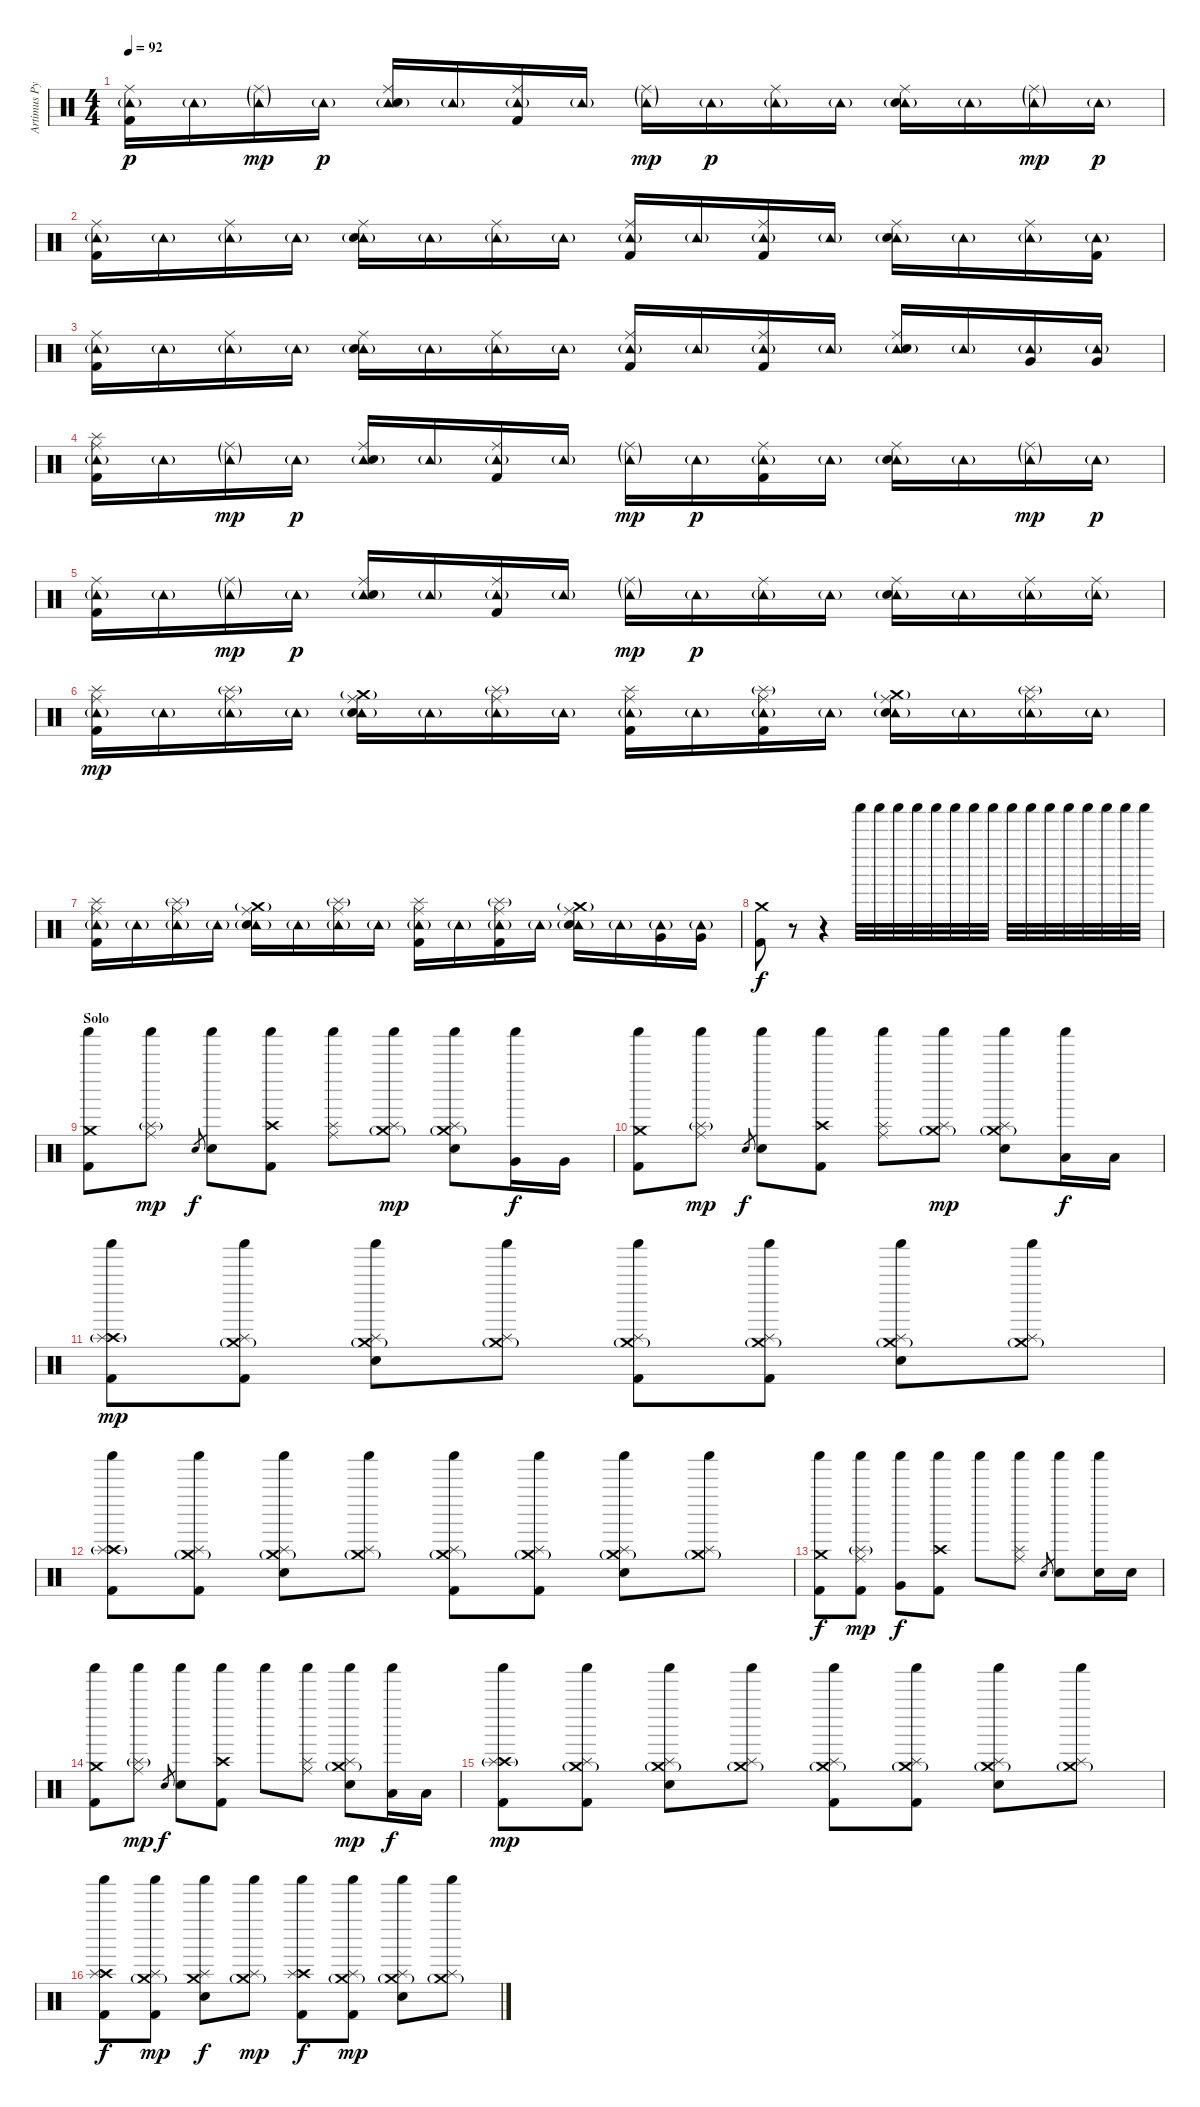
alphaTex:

\track ("Artimus Pyle (drums)" "Artimus Py") {instrument percussion}
\staff {score}
\articulation defaults
\ts (4 4)
\tempo 92
\clef neutral
\ks c
("Tambourine (hit)"{g} "Ride (middle)" "Kick (hit) 2").16{dy p} "Tambourine (hit)"{g}.16 ("Tambourine (hit)"{g} "Ride (middle)"{g}).16{dy mp} "Tambourine (hit)"{g}.16{dy p} ("Tambourine (hit)"{g} "Ride (middle)" "Electric Snare (hit)").16 "Tambourine (hit)"{g}.16 ("Tambourine (hit)"{g} "Ride (middle)" "Kick (hit) 2").16 "Tambourine (hit)"{g}.16 ("Tambourine (hit)"{g} "Ride (middle)"{g}).16{dy mp} "Tambourine (hit)"{g}.16{dy p} ("Tambourine (hit)"{g} "Ride (middle)").16 "Tambourine (hit)"{g}.16 ("Tambourine (hit)"{g} "Ride (middle)" "Electric Snare (hit)").16 "Tambourine (hit)"{g}.16 ("Tambourine (hit)"{g} "Ride (middle)"{g}).16{dy mp} "Tambourine (hit)"{g}.16{dy p} |
("Tambourine (hit)"{g} "Ride (middle)" "Kick (hit) 2").16 "Tambourine (hit)"{g}.16 ("Tambourine (hit)"{g} "Ride (middle)").16 "Tambourine (hit)"{g}.16 ("Tambourine (hit)"{g} "Ride (middle)" "Electric Snare (hit)").16 "Tambourine (hit)"{g}.16 ("Tambourine (hit)"{g} "Ride (middle)").16 "Tambourine (hit)"{g}.16 ("Tambourine (hit)"{g} "Ride (middle)" "Kick (hit) 2").16 "Tambourine (hit)"{g}.16 ("Tambourine (hit)"{g} "Ride (middle)" "Kick (hit) 2").16 "Tambourine (hit)"{g}.16 ("Tambourine (hit)"{g} "Ride (middle)" "Electric Snare (hit)").16 "Tambourine (hit)"{g}.16 ("Tambourine (hit)"{g} "Ride (middle)").16 ("Tambourine (hit)"{g} "Kick (hit) 2").16 |
("Tambourine (hit)"{g} "Ride (middle)" "Kick (hit) 2").16 "Tambourine (hit)"{g}.16 ("Tambourine (hit)"{g} "Ride (middle)").16 "Tambourine (hit)"{g}.16 ("Tambourine (hit)"{g} "Ride (middle)" "Electric Snare (hit)").16 "Tambourine (hit)"{g}.16 ("Tambourine (hit)"{g} "Ride (middle)").16 "Tambourine (hit)"{g}.16 ("Tambourine (hit)"{g} "Ride (middle)" "Kick (hit) 2").16 "Tambourine (hit)"{g}.16 ("Tambourine (hit)"{g} "Ride (middle)" "Kick (hit) 2").16 "Tambourine (hit)"{g}.16 ("Tambourine (hit)"{g} "Ride (middle)" "Electric Snare (hit)").16 "Tambourine (hit)"{g}.16 ("Tambourine (hit)"{g} "Very Low Tom (hit)").16 ("Tambourine (hit)"{g} "Very Low Tom (hit)").16 |
("Tambourine (hit)"{g} "Splash (hit)" "Ride (middle)" "Kick (hit) 2").16 "Tambourine (hit)"{g}.16 ("Tambourine (hit)"{g} "Ride (middle)"{g}).16{dy mp} "Tambourine (hit)"{g}.16{dy p} ("Tambourine (hit)"{g} "Ride (middle)" "Electric Snare (hit)").16 "Tambourine (hit)"{g}.16 ("Tambourine (hit)"{g} "Ride (middle)" "Kick (hit) 2").16 "Tambourine (hit)"{g}.16 ("Tambourine (hit)"{g} "Ride (middle)"{g}).16{dy mp} "Tambourine (hit)"{g}.16{dy p} ("Tambourine (hit)"{g} "Ride (middle)" "Kick (hit) 2").16 "Tambourine (hit)"{g}.16 ("Tambourine (hit)"{g} "Ride (middle)" "Electric Snare (hit)").16 "Tambourine (hit)"{g}.16 ("Tambourine (hit)"{g} "Ride (middle)"{g}).16{dy mp} "Tambourine (hit)"{g}.16{dy p} |
("Tambourine (hit)"{g} "Ride (middle)" "Kick (hit) 2").16 "Tambourine (hit)"{g}.16 ("Tambourine (hit)"{g} "Ride (middle)"{g}).16{dy mp} "Tambourine (hit)"{g}.16{dy p} ("Tambourine (hit)"{g} "Ride (middle)" "Electric Snare (hit)").16 "Tambourine (hit)"{g}.16 ("Tambourine (hit)"{g} "Ride (middle)" "Kick (hit) 2").16 "Tambourine (hit)"{g}.16 ("Tambourine (hit)"{g} "Ride (middle)"{g}).16{dy mp} "Tambourine (hit)"{g}.16{dy p} ("Tambourine (hit)"{g} "Ride (middle)").16 "Tambourine (hit)"{g}.16 ("Tambourine (hit)"{g} "Ride (middle)" "Electric Snare (hit)").16 "Tambourine (hit)"{g}.16 ("Tambourine (hit)"{g} "Ride (middle)").16 ("Tambourine (hit)"{g} "Ride (middle)").16 |
("Tambourine (hit)"{g} "Splash (hit)" "Ride (middle)" "Kick (hit) 2").16{dy mp} "Tambourine (hit)"{g}.16 ("Tambourine (hit)"{g} "Splash (hit)"{g} "Ride (middle)").16 "Tambourine (hit)"{g}.16 ("Tambourine (hit)"{g} "Crash medium (hit)"{g} "Ride (middle)" "Electric Snare (hit)").16 "Tambourine (hit)"{g}.16 ("Tambourine (hit)"{g} "Splash (hit)"{g} "Ride (middle)").16 "Tambourine (hit)"{g}.16 ("Tambourine (hit)"{g} "Splash (hit)" "Ride (middle)" "Kick (hit) 2").16 "Tambourine (hit)"{g}.16 ("Tambourine (hit)"{g} "Splash (hit)"{g} "Ride (middle)" "Kick (hit) 2").16 "Tambourine (hit)"{g}.16 ("Tambourine (hit)"{g} "Crash medium (hit)"{g} "Ride (middle)" "Electric Snare (hit)").16 "Tambourine (hit)"{g}.16 ("Tambourine (hit)"{g} "Splash (hit)"{g} "Ride (middle)").16 "Tambourine (hit)"{g}.16 |
("Tambourine (hit)"{g} "Splash (hit)" "Ride (middle)" "Kick (hit) 2").16 "Tambourine (hit)"{g}.16 ("Tambourine (hit)"{g} "Splash (hit)"{g} "Ride (middle)").16 "Tambourine (hit)"{g}.16 ("Tambourine (hit)"{g} "Crash medium (hit)"{g} "Ride (middle)" "Electric Snare (hit)").16 "Tambourine (hit)"{g}.16 ("Tambourine (hit)"{g} "Splash (hit)"{g} "Ride (middle)").16 "Tambourine (hit)"{g}.16 ("Tambourine (hit)"{g} "Splash (hit)" "Ride (middle)" "Kick (hit) 2").16 "Tambourine (hit)"{g}.16 ("Tambourine (hit)"{g} "Splash (hit)"{g} "Ride (middle)" "Kick (hit) 2").16 "Tambourine (hit)"{g}.16 ("Tambourine (hit)"{g} "Crash medium (hit)"{g} "Ride (middle)" "Electric Snare (hit)").16 "Tambourine (hit)"{g}.16 ("Tambourine (hit)"{g} "Very Low Tom (hit)").16 ("Tambourine (hit)"{g} "Very Low Tom (hit)").16 |
("Crash medium (hit)" "Kick (hit) 2").8{dy f} r.8{volume 1} r.4 "Shaker (hit)".32{volume 15} "Shaker (hit)".32 "Shaker (hit)".32 "Shaker (hit)".32 "Shaker (hit)".32 "Shaker (hit)".32 "Shaker (hit)".32 "Shaker (hit)".32 "Shaker (hit)".32 "Shaker (hit)".32 "Shaker (hit)".32 "Shaker (hit)".32 "Shaker (hit)".32 "Shaker (hit)".32 "Shaker (hit)".32 "Shaker (hit)".32 |
\section ("" "Solo")
("Shaker (hit)" "Crash medium (hit)" "Kick (hit) 2").8 ("Shaker (hit)" "Splash (hit)"{g} "Ride (middle)").8{dy mp} "Electric Snare (hit)".8{gr dy f} ("Shaker (hit)" "Electric Snare (hit)").8 ("Shaker (hit)" "Crash high (hit)" "Kick (hit) 2").8 ("Shaker (hit)" "Splash (hit)" "Ride (middle)").8 ("Shaker (hit)" "Crash medium (hit)"{g} "Splash (hit)").8{dy mp} ("Shaker (hit)" "Crash medium (hit)"{g} "Splash (hit)" "Electric Snare (hit)").8 ("Shaker (hit)" "Very Low Tom (hit)").16{dy f} "Very Low Tom (hit)".16 |
("Shaker (hit)" "Crash medium (hit)" "Kick (hit) 2").8 ("Shaker (hit)" "Splash (hit)"{g} "Ride (middle)").8{dy mp} "Electric Snare (hit)".8{gr dy f} ("Shaker (hit)" "Electric Snare (hit)").8 ("Shaker (hit)" "Crash high (hit)" "Kick (hit) 2").8 ("Shaker (hit)" "Splash (hit)" "Ride (middle)").8 ("Shaker (hit)" "Crash medium (hit)"{g} "Splash (hit)").8{dy mp} ("Shaker (hit)" "Crash medium (hit)"{g} "Splash (hit)" "Electric Snare (hit)").8 ("Shaker (hit)" "Low Tom (hit)").16{dy f} "Low Tom (hit)".16 |
("Shaker (hit)" "Crash high (hit)"{g} "Splash (hit)" "Kick (hit) 2").8{dy mp} ("Shaker (hit)" "Crash medium (hit)"{g} "Splash (hit)" "Kick (hit) 2").8 ("Shaker (hit)" "Crash medium (hit)"{g} "Splash (hit)" "Electric Snare (hit)").8 ("Shaker (hit)" "Crash medium (hit)"{g} "Splash (hit)").8 ("Shaker (hit)" "Crash medium (hit)"{g} "Splash (hit)" "Kick (hit) 2").8 ("Shaker (hit)" "Crash medium (hit)"{g} "Splash (hit)" "Kick (hit) 2").8 ("Shaker (hit)" "Crash medium (hit)"{g} "Splash (hit)" "Electric Snare (hit)").8 ("Shaker (hit)" "Crash medium (hit)"{g} "Splash (hit)").8 |
("Shaker (hit)" "Crash high (hit)"{g} "Splash (hit)" "Kick (hit) 2").8 ("Shaker (hit)" "Crash medium (hit)"{g} "Splash (hit)" "Kick (hit) 2").8 ("Shaker (hit)" "Crash medium (hit)"{g} "Splash (hit)" "Electric Snare (hit)").8 ("Shaker (hit)" "Crash medium (hit)"{g} "Splash (hit)").8 ("Shaker (hit)" "Crash medium (hit)"{g} "Splash (hit)" "Kick (hit) 2").8 ("Shaker (hit)" "Crash medium (hit)"{g} "Splash (hit)" "Kick (hit) 2").8 ("Shaker (hit)" "Crash medium (hit)"{g} "Splash (hit)" "Electric Snare (hit)").8 ("Shaker (hit)" "Crash medium (hit)"{g} "Splash (hit)").8 |
("Shaker (hit)" "Crash medium (hit)" "Kick (hit) 2").8{dy f} ("Shaker (hit)" "Splash (hit)"{g} "Ride (middle)" "Kick (hit) 2").8{dy mp} ("Shaker (hit)" "Very Low Tom (hit)").8{dy f} ("Shaker (hit)" "Crash high (hit)" "Kick (hit) 2").8 "Shaker (hit)".8 ("Shaker (hit)" "Splash (hit)" "Ride (middle)").8 "Electric Snare (hit)".8{gr} ("Shaker (hit)" "Electric Snare (hit)").8 ("Shaker (hit)" "Electric Snare (hit)").16 "Electric Snare (hit)".16 |
("Shaker (hit)" "Crash medium (hit)" "Kick (hit) 2").8 ("Shaker (hit)" "Splash (hit)"{g} "Ride (middle)").8{dy mp} "Electric Snare (hit)".8{gr dy f} ("Shaker (hit)" "Electric Snare (hit)").8 ("Shaker (hit)" "Crash high (hit)" "Kick (hit) 2").8 "Shaker (hit)".8 ("Shaker (hit)" "Splash (hit)" "Ride (middle)").8 ("Shaker (hit)" "Crash medium (hit)"{g} "Splash (hit)" "Electric Snare (hit)").8{dy mp} ("Shaker (hit)" "Low Tom (hit)").16{dy f} "Low Tom (hit)".16 |
("Shaker (hit)" "Crash high (hit)"{g} "Splash (hit)" "Kick (hit) 2").8{dy mp} ("Shaker (hit)" "Crash medium (hit)"{g} "Splash (hit)" "Kick (hit) 2").8 ("Shaker (hit)" "Crash medium (hit)"{g} "Splash (hit)" "Electric Snare (hit)").8 ("Shaker (hit)" "Crash medium (hit)"{g} "Splash (hit)").8 ("Shaker (hit)" "Crash medium (hit)"{g} "Splash (hit)" "Kick (hit) 2").8 ("Shaker (hit)" "Crash medium (hit)"{g} "Splash (hit)" "Kick (hit) 2").8 ("Shaker (hit)" "Crash medium (hit)"{g} "Splash (hit)" "Electric Snare (hit)").8 ("Shaker (hit)" "Crash medium (hit)"{g} "Splash (hit)").8 |
("Shaker (hit)" "Crash high (hit)" "Splash (hit)" "Kick (hit) 2").8{dy f} ("Shaker (hit)" "Crash medium (hit)"{g} "Splash (hit)" "Kick (hit) 2").8{dy mp} ("Shaker (hit)" "Crash medium (hit)" "Splash (hit)" "Electric Snare (hit)").8{dy f} ("Shaker (hit)" "Crash medium (hit)"{g} "Splash (hit)").8{dy mp} ("Shaker (hit)" "Crash high (hit)" "Splash (hit)" "Kick (hit) 2").8{dy f} ("Shaker (hit)" "Crash medium (hit)"{g} "Splash (hit)" "Kick (hit) 2").8{dy mp} ("Shaker (hit)" "Crash medium (hit)"{g} "Splash (hit)" "Electric Snare (hit)").8 ("Shaker (hit)" "Crash medium (hit)"{g} "Splash (hit)").8
